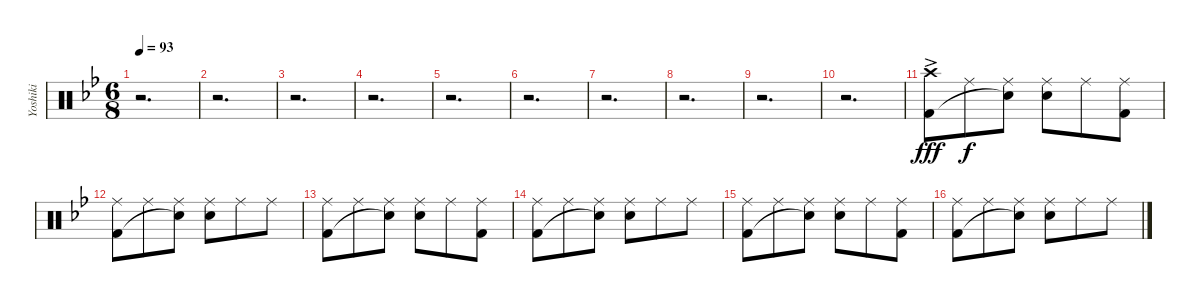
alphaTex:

\track ("Yoshiki" "Yoshiki") {instrument percussion}
\staff {score}
\articulation defaults
\ts (6 8)
\tempo 93
\clef neutral
\ks bb
r.2{d dy fff} |
r.2{d} |
r.2{d} |
r.2{d} |
r.2{d} |
r.2{d} |
r.2{d} |
r.2{d} |
r.2{d} |
r.2{d} |
("Crash high (hit)"{ac} "Kick (hit) 2"{ac}).8 "Ride (middle)".8{dy f} ("Ride (middle)" "Snare (hit)"{t}).8 ("Ride (middle)" "Snare (hit) 2").8 "Ride (middle)".8 ("Ride (middle)" "Kick (hit) 2").8 |
("Ride (middle)" "Kick (hit) 2").8 "Ride (middle)".8 ("Ride (middle)" "Snare (hit)"{t}).8 ("Ride (middle)" "Snare (hit) 2").8 "Ride (middle)".8 "Ride (middle)".8 |
("Ride (middle)" "Kick (hit) 2").8 "Ride (middle)".8 ("Ride (middle)" "Snare (hit)"{t}).8 ("Ride (middle)" "Snare (hit) 2").8 "Ride (middle)".8 ("Ride (middle)" "Kick (hit) 2").8 |
("Ride (middle)" "Kick (hit) 2").8 "Ride (middle)".8 ("Ride (middle)" "Snare (hit)"{t}).8 ("Ride (middle)" "Snare (hit) 2").8 "Ride (middle)".8 "Ride (middle)".8 |
("Ride (middle)" "Kick (hit) 2").8 "Ride (middle)".8 ("Ride (middle)" "Snare (hit)"{t}).8 ("Ride (middle)" "Snare (hit) 2").8 "Ride (middle)".8 ("Ride (middle)" "Kick (hit) 2").8 |
("Ride (middle)" "Kick (hit) 2").8 "Ride (middle)".8 ("Ride (middle)" "Snare (hit)"{t}).8 ("Ride (middle)" "Snare (hit) 2").8 "Ride (middle)".8 "Ride (middle)".8
